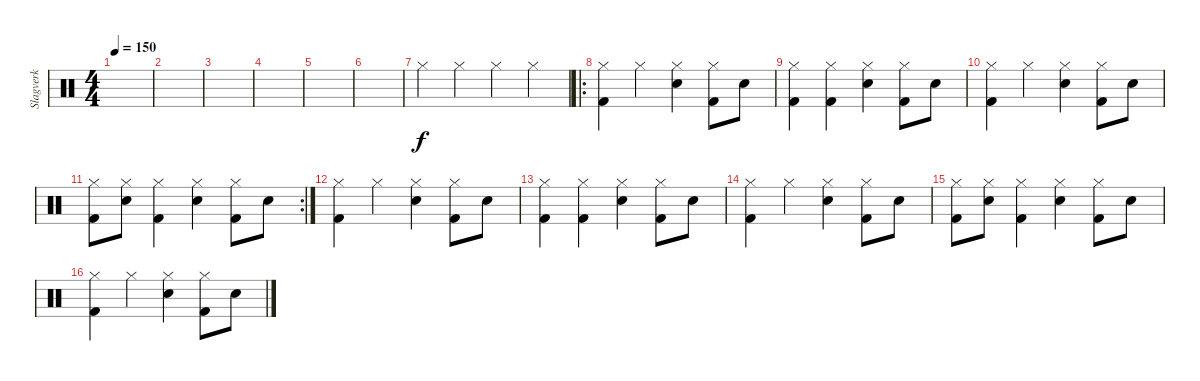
\track ("Slagverk" "Slagverk") {instrument percussion}
\staff {score}
\articulation defaults
\ts (4 4)
\tempo 150
\clef neutral
\ks c
|
|
|
|
|
|
"Hi-Hat (closed)".4 "Hi-Hat (closed)".4 "Hi-Hat (closed)".4 "Hi-Hat (closed)".4 |
\ro
("Hi-Hat (closed)" "Kick (hit) 2").4 "Hi-Hat (closed)".4 ("Hi-Hat (closed)" "Electric Snare (hit)").4 ("Hi-Hat (closed)" "Kick (hit) 2").8 "Electric Snare (hit)".8 |
("Hi-Hat (closed)" "Kick (hit) 2").4 ("Hi-Hat (closed)" "Kick (hit) 2").4 ("Hi-Hat (closed)" "Electric Snare (hit)").4 ("Hi-Hat (closed)" "Kick (hit) 2").8 "Electric Snare (hit)".8 |
("Hi-Hat (closed)" "Kick (hit) 2").4 "Hi-Hat (closed)".4 ("Hi-Hat (closed)" "Electric Snare (hit)").4 ("Hi-Hat (closed)" "Kick (hit) 2").8 "Electric Snare (hit)".8 |
\rc 2
("Hi-Hat (closed)" "Kick (hit) 2").8 ("Hi-Hat (closed)" "Electric Snare (hit)").8 ("Hi-Hat (closed)" "Kick (hit) 2").4 ("Hi-Hat (closed)" "Electric Snare (hit)").4 ("Hi-Hat (closed)" "Kick (hit) 2").8 "Electric Snare (hit)".8 |
("Hi-Hat (closed)" "Kick (hit) 2").4 "Hi-Hat (closed)".4 ("Hi-Hat (closed)" "Electric Snare (hit)").4 ("Hi-Hat (closed)" "Kick (hit) 2").8 "Electric Snare (hit)".8 |
("Hi-Hat (closed)" "Kick (hit) 2").4 ("Hi-Hat (closed)" "Kick (hit) 2").4 ("Hi-Hat (closed)" "Electric Snare (hit)").4 ("Hi-Hat (closed)" "Kick (hit) 2").8 "Electric Snare (hit)".8 |
("Hi-Hat (closed)" "Kick (hit) 2").4 "Hi-Hat (closed)".4 ("Hi-Hat (closed)" "Electric Snare (hit)").4 ("Hi-Hat (closed)" "Kick (hit) 2").8 "Electric Snare (hit)".8 |
("Hi-Hat (closed)" "Kick (hit) 2").8 ("Hi-Hat (closed)" "Electric Snare (hit)").8 ("Hi-Hat (closed)" "Kick (hit) 2").4 ("Hi-Hat (closed)" "Electric Snare (hit)").4 ("Hi-Hat (closed)" "Kick (hit) 2").8 "Electric Snare (hit)".8 |
("Hi-Hat (closed)" "Kick (hit) 2").4 "Hi-Hat (closed)".4 ("Hi-Hat (closed)" "Electric Snare (hit)").4 ("Hi-Hat (closed)" "Kick (hit) 2").8 "Electric Snare (hit)".8
